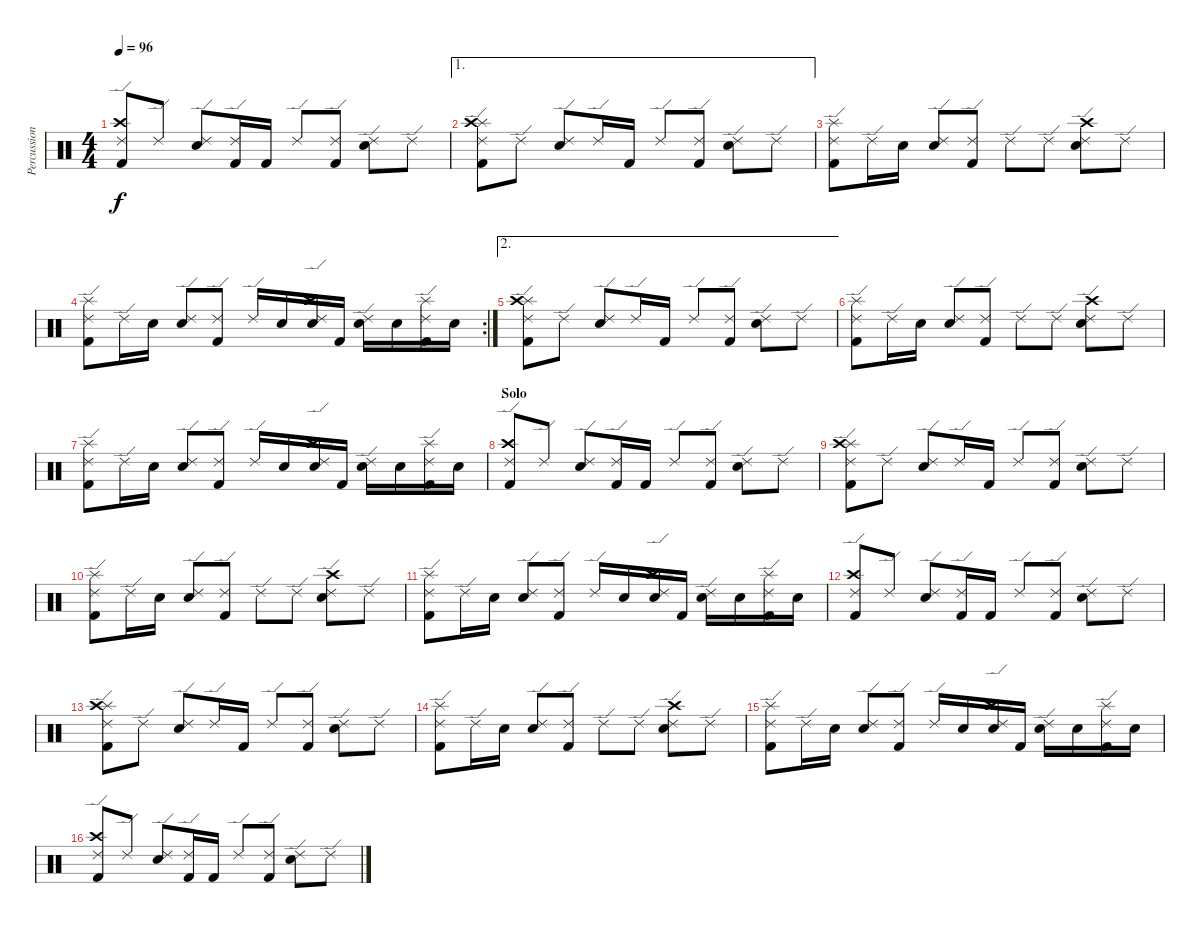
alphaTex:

\track ("Percussion" "Percussion") {instrument percussion}
\staff {score}
\articulation defaults
\ts (4 4)
\tempo 96
\clef neutral
\ks c
("Ride (edge) 2" "Crash high (hit)" "Kick (hit) 2").8{dy f} "Ride (edge) 2".8 ("Ride (edge) 2" "Electric Snare (hit)").8 ("Ride (edge) 2" "Kick (hit) 2").16 "Kick (hit) 2".16 "Ride (edge) 2".8 ("Ride (edge) 2" "Kick (hit) 2").8 ("Ride (edge) 2" "Electric Snare (hit)").8 "Ride (edge) 2".8 |
\ae 1
("Ride (edge) 2" "Splash (hit)" "Crash high (hit)" "Kick (hit) 2").8 "Ride (edge) 2".8 ("Ride (edge) 2" "Electric Snare (hit)").8 "Ride (edge) 2".16 "Kick (hit) 2".16 "Ride (edge) 2".8 ("Ride (edge) 2" "Kick (hit) 2").8 ("Ride (edge) 2" "Electric Snare (hit)").8 "Ride (edge) 2".8 |
("Ride (edge) 2" "Splash (hit)" "Kick (hit) 2").8 "Ride (edge) 2".16 "Electric Snare (hit)".16 ("Ride (edge) 2" "Electric Snare (hit)").8 ("Ride (edge) 2" "Kick (hit) 2").8 "Ride (edge) 2".8 "Ride (edge) 2".8 ("Ride (edge) 2" "Crash high (hit)" "Electric Snare (hit)").8 "Ride (edge) 2".8 |
\rc 2
("Ride (edge) 2" "Splash (hit)" "Kick (hit) 2").8 "Ride (edge) 2".16 "Electric Snare (hit)".16 ("Ride (edge) 2" "Electric Snare (hit)").8 ("Ride (edge) 2" "Kick (hit) 2").8 "Ride (edge) 2".16 "Electric Snare (hit)".16 ("Ride (edge) 2" "Crash high (hit)" "Electric Snare (hit)").16 "Kick (hit) 2".16 ("Ride (edge) 2" "Electric Snare (hit)").16 "Electric Snare (hit)".16 ("Ride (edge) 2" "Splash (hit)" "Kick (hit) 2").16 "Electric Snare (hit)".16 |
\ae 2
("Ride (edge) 2" "Splash (hit)" "Crash high (hit)" "Kick (hit) 2").8 "Ride (edge) 2".8 ("Ride (edge) 2" "Electric Snare (hit)").8 "Ride (edge) 2".16 "Kick (hit) 2".16 "Ride (edge) 2".8 ("Ride (edge) 2" "Kick (hit) 2").8 ("Ride (edge) 2" "Electric Snare (hit)").8 "Ride (edge) 2".8 |
("Ride (edge) 2" "Splash (hit)" "Kick (hit) 2").8 "Ride (edge) 2".16 "Electric Snare (hit)".16 ("Ride (edge) 2" "Electric Snare (hit)").8 ("Ride (edge) 2" "Kick (hit) 2").8 "Ride (edge) 2".8 "Ride (edge) 2".8 ("Ride (edge) 2" "Crash high (hit)" "Electric Snare (hit)").8 "Ride (edge) 2".8 |
("Ride (edge) 2" "Splash (hit)" "Kick (hit) 2").8 "Ride (edge) 2".16 "Electric Snare (hit)".16 ("Ride (edge) 2" "Electric Snare (hit)").8 ("Ride (edge) 2" "Kick (hit) 2").8 "Ride (edge) 2".16 "Electric Snare (hit)".16 ("Ride (edge) 2" "Crash high (hit)" "Electric Snare (hit)").16 "Kick (hit) 2".16 ("Ride (edge) 2" "Electric Snare (hit)").16 "Electric Snare (hit)".16 ("Ride (edge) 2" "Splash (hit)" "Kick (hit) 2").16 "Electric Snare (hit)".16 |
\section ("" "Solo")
("Ride (edge) 2" "Crash high (hit)" "Kick (hit) 2").8 "Ride (edge) 2".8 ("Ride (edge) 2" "Electric Snare (hit)").8 ("Ride (edge) 2" "Kick (hit) 2").16 "Kick (hit) 2".16 "Ride (edge) 2".8 ("Ride (edge) 2" "Kick (hit) 2").8 ("Ride (edge) 2" "Electric Snare (hit)").8 "Ride (edge) 2".8 |
("Ride (edge) 2" "Splash (hit)" "Crash high (hit)" "Kick (hit) 2").8 "Ride (edge) 2".8 ("Ride (edge) 2" "Electric Snare (hit)").8 "Ride (edge) 2".16 "Kick (hit) 2".16 "Ride (edge) 2".8 ("Ride (edge) 2" "Kick (hit) 2").8 ("Ride (edge) 2" "Electric Snare (hit)").8 "Ride (edge) 2".8 |
("Ride (edge) 2" "Splash (hit)" "Kick (hit) 2").8 "Ride (edge) 2".16 "Electric Snare (hit)".16 ("Ride (edge) 2" "Electric Snare (hit)").8 ("Ride (edge) 2" "Kick (hit) 2").8 "Ride (edge) 2".8 "Ride (edge) 2".8 ("Ride (edge) 2" "Crash high (hit)" "Electric Snare (hit)").8 "Ride (edge) 2".8 |
("Ride (edge) 2" "Splash (hit)" "Kick (hit) 2").8 "Ride (edge) 2".16 "Electric Snare (hit)".16 ("Ride (edge) 2" "Electric Snare (hit)").8 ("Ride (edge) 2" "Kick (hit) 2").8 "Ride (edge) 2".16 "Electric Snare (hit)".16 ("Ride (edge) 2" "Crash high (hit)" "Electric Snare (hit)").16 "Kick (hit) 2".16 ("Ride (edge) 2" "Electric Snare (hit)").16 "Electric Snare (hit)".16 ("Ride (edge) 2" "Splash (hit)" "Kick (hit) 2").16 "Electric Snare (hit)".16 |
("Ride (edge) 2" "Crash high (hit)" "Kick (hit) 2").8 "Ride (edge) 2".8 ("Ride (edge) 2" "Electric Snare (hit)").8 ("Ride (edge) 2" "Kick (hit) 2").16 "Kick (hit) 2".16 "Ride (edge) 2".8 ("Ride (edge) 2" "Kick (hit) 2").8 ("Ride (edge) 2" "Electric Snare (hit)").8 "Ride (edge) 2".8 |
("Ride (edge) 2" "Splash (hit)" "Crash high (hit)" "Kick (hit) 2").8 "Ride (edge) 2".8 ("Ride (edge) 2" "Electric Snare (hit)").8 "Ride (edge) 2".16 "Kick (hit) 2".16 "Ride (edge) 2".8 ("Ride (edge) 2" "Kick (hit) 2").8 ("Ride (edge) 2" "Electric Snare (hit)").8 "Ride (edge) 2".8 |
("Ride (edge) 2" "Splash (hit)" "Kick (hit) 2").8 "Ride (edge) 2".16 "Electric Snare (hit)".16 ("Ride (edge) 2" "Electric Snare (hit)").8 ("Ride (edge) 2" "Kick (hit) 2").8 "Ride (edge) 2".8 "Ride (edge) 2".8 ("Ride (edge) 2" "Crash high (hit)" "Electric Snare (hit)").8 "Ride (edge) 2".8 |
("Ride (edge) 2" "Splash (hit)" "Kick (hit) 2").8 "Ride (edge) 2".16 "Electric Snare (hit)".16 ("Ride (edge) 2" "Electric Snare (hit)").8 ("Ride (edge) 2" "Kick (hit) 2").8 "Ride (edge) 2".16 "Electric Snare (hit)".16 ("Ride (edge) 2" "Crash high (hit)" "Electric Snare (hit)").16 "Kick (hit) 2".16 ("Ride (edge) 2" "Electric Snare (hit)").16 "Electric Snare (hit)".16 ("Ride (edge) 2" "Splash (hit)" "Kick (hit) 2").16 "Electric Snare (hit)".16 |
("Ride (edge) 2" "Crash high (hit)" "Kick (hit) 2").8 "Ride (edge) 2".8 ("Ride (edge) 2" "Electric Snare (hit)").8 ("Ride (edge) 2" "Kick (hit) 2").16 "Kick (hit) 2".16 "Ride (edge) 2".8 ("Ride (edge) 2" "Kick (hit) 2").8 ("Ride (edge) 2" "Electric Snare (hit)").8 "Ride (edge) 2".8
